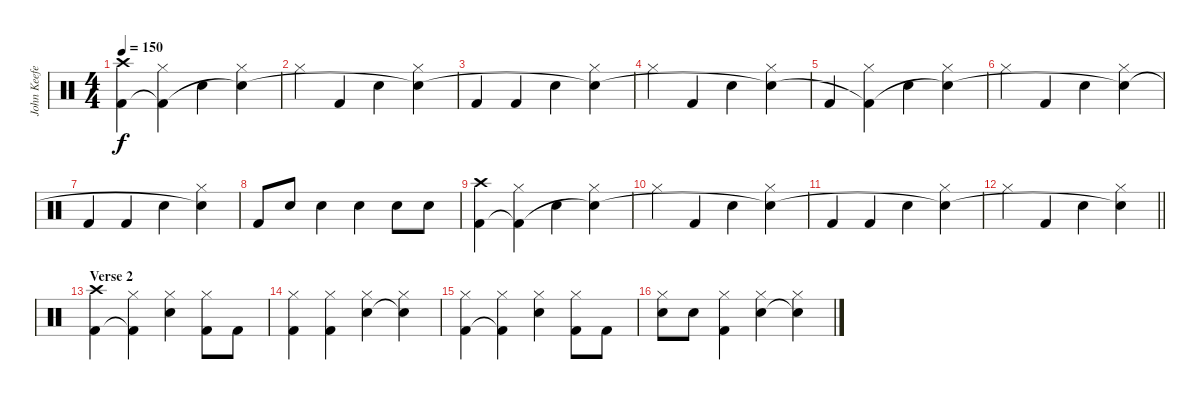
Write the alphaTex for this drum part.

\track ("John Keefe (Percussion)" "John Keefe") {instrument percussion}
\staff {score}
\articulation defaults
\ts (4 4)
\tempo 150
\clef neutral
\ks c
("Crash high (hit)" "Kick (hit) 2").4{dy f} ("Hi-Hat (closed)" "Kick (hit) 2"{t}).4 "Snare (hit) 2".4 ("Hi-Hat (closed)" "Snare (hit) 2"{t}).4 |
"Hi-Hat (closed)".4 "Kick (hit) 2".4 "Snare (hit) 2".4 ("Hi-Hat (closed)" "Snare (hit) 2"{t}).4 |
"Kick (hit) 2".4 "Kick (hit) 2".4 "Snare (hit) 2".4 ("Hi-Hat (closed)" "Snare (hit) 2"{t}).4 |
"Hi-Hat (closed)".4 "Kick (hit) 2".4 "Snare (hit) 2".4 ("Hi-Hat (closed)" "Snare (hit) 2"{t}).4 |
"Kick (hit) 2".4 ("Hi-Hat (closed)" "Kick (hit) 2"{t}).4 "Snare (hit) 2".4 ("Hi-Hat (closed)" "Snare (hit) 2"{t}).4 |
"Hi-Hat (closed)".4 "Kick (hit) 2".4 "Snare (hit) 2".4 ("Hi-Hat (closed)" "Snare (hit) 2"{t}).4 |
"Kick (hit) 2".4 "Kick (hit) 2".4 "Snare (hit) 2".4 ("Hi-Hat (closed)" "Snare (hit) 2"{t}).4 |
"Kick (hit) 2".8 "Snare (hit) 2".8 "Snare (hit) 2".4 "Snare (hit) 2".4 "Snare (hit) 2".8 "Snare (hit) 2".8 |
("Crash high (hit)" "Kick (hit) 2").4 ("Hi-Hat (closed)" "Kick (hit) 2"{t}).4 "Snare (hit) 2".4 ("Hi-Hat (closed)" "Snare (hit) 2"{t}).4 |
"Hi-Hat (closed)".4 "Kick (hit) 2".4 "Snare (hit) 2".4 ("Hi-Hat (closed)" "Snare (hit) 2"{t}).4 |
"Kick (hit) 2".4 "Kick (hit) 2".4 "Snare (hit) 2".4 ("Hi-Hat (closed)" "Snare (hit) 2"{t}).4 |
\barLineRight lightlight "Hi-Hat (closed)".4 "Kick (hit) 2".4 "Snare (hit) 2".4
("Hi-Hat (closed)" "Snare (hit) 2"{t}).4 |
\section ("" "Verse 2")
("Crash high (hit)" "Kick (hit) 2").4 ("Hi-Hat (closed)" "Kick (hit) 2"{t}).4 ("Hi-Hat (closed)" "Snare (hit) 2").4 ("Hi-Hat (closed)" "Kick (hit) 2").8 "Kick (hit) 2".8 |
("Hi-Hat (closed)" "Kick (hit) 2").4 ("Hi-Hat (closed)" "Kick (hit) 2").4 ("Hi-Hat (closed)" "Snare (hit) 2").4 ("Hi-Hat (closed)" "Snare (hit) 2"{t}).4 |
("Hi-Hat (closed)" "Kick (hit) 2").4 ("Hi-Hat (closed)" "Kick (hit) 2"{t}).4 ("Hi-Hat (closed)" "Snare (hit) 2").4 ("Hi-Hat (closed)" "Kick (hit) 2").8 "Kick (hit) 2".8 |
("Hi-Hat (closed)" "Snare (hit) 2").8 "Snare (hit) 2".8 ("Hi-Hat (closed)" "Kick (hit) 2").4 ("Hi-Hat (closed)" "Snare (hit) 2").4 ("Hi-Hat (closed)" "Snare (hit) 2"{t}).4
